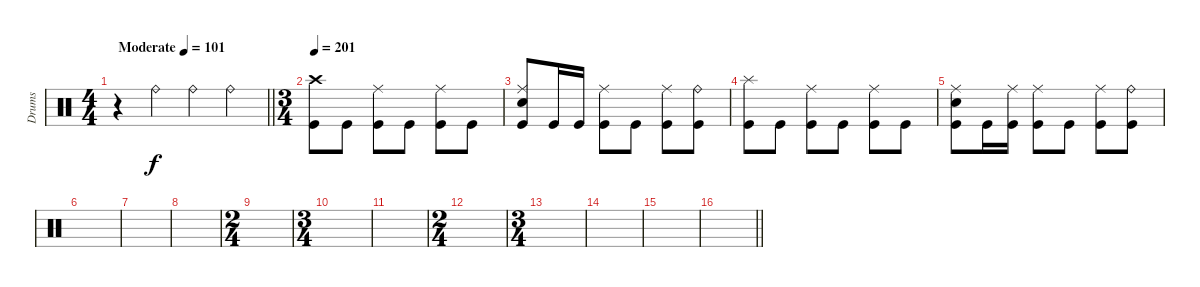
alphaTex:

\track ("Drums" "Drums") {instrument percussion}
\staff
\articulation defaults
\ts (4 4)
\tempo (101 "Moderate")
\clef neutral
\barLineRight lightlight
\ks c
r.4{dy f} "Ride (bell)".4 "Ride (bell)".4 "Ride (bell)".4 |
\ts (3 4)
\tempo 201
("Crash high (hit)" "Kick (hit)").8 "Kick (hit)".8 ("Ride (middle)" "Kick (hit)").8 "Kick (hit)".8 ("Ride (middle)" "Kick (hit)").8 "Kick (hit)".8 |
("Ride (middle)" "Electric Snare (hit)" "Kick (hit)").8 "Kick (hit)".16 "Kick (hit)".16 ("Ride (middle)" "Kick (hit)").8 "Kick (hit)".8 ("Ride (middle)" "Kick (hit)").8 ("Ride (bell)" "Kick (hit)").8 |
("Splash (hit)" "Kick (hit)").8 "Kick (hit)".8 ("Ride (middle)" "Kick (hit)").8 "Kick (hit)".8 ("Ride (middle)" "Kick (hit)").8 "Kick (hit)".8 |
("Ride (middle)" "Electric Snare (hit)" "Kick (hit)").8 "Kick (hit)".16 ("Ride (middle)" "Kick (hit)").16 ("Ride (middle)" "Kick (hit)").8 "Kick (hit)".8 ("Ride (middle)" "Kick (hit)").8 ("Ride (bell)" "Kick (hit)").8 |
|
|
|
\ts (2 4)
|
\ts (3 4)
|
|
\ts (2 4)
|
\ts (3 4)
|
|
|
\barLineRight lightlight
